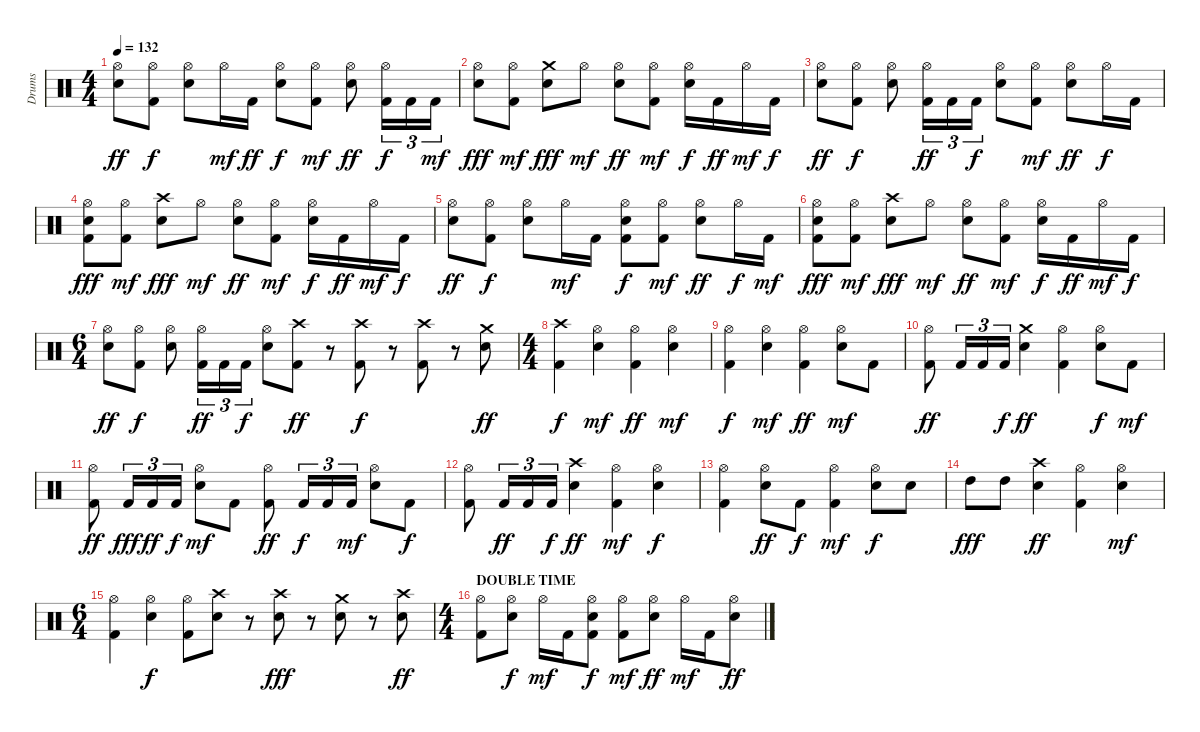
\track ("Drums" "Drums") {instrument percussion}
\staff {score}
\articulation defaults
\ts (4 4)
\tempo 132
\clef neutral
\ks c
("Hi-Hat (open)" "Electric Snare (hit)").8{dy ff} ("Hi-Hat (open)" "Kick (hit) 2").8{dy f} ("Hi-Hat (open)" "Electric Snare (hit)").8 "Hi-Hat (open)".16{dy mf} "Kick (hit) 2".16{dy ff} ("Hi-Hat (open)" "Electric Snare (hit)").8{dy f} ("Hi-Hat (open)" "Kick (hit) 2").8{dy mf} ("Hi-Hat (open)" "Electric Snare (hit)").8{dy ff} ("Hi-Hat (open)" "Kick (hit) 2").16{tu (3 2) dy f} "Kick (hit) 2".16{tu (3 2)} "Kick (hit) 2".16{tu (3 2) dy mf} |
("Hi-Hat (open)" "Electric Snare (hit)").8{dy fff} ("Hi-Hat (open)" "Kick (hit) 2").8{dy mf} ("Crash medium (hit)" "Electric Snare (hit)").8{dy fff} "Hi-Hat (open)".8{dy mf} ("Hi-Hat (open)" "Electric Snare (hit)").8{dy ff} ("Hi-Hat (open)" "Kick (hit) 2").8{dy mf} ("Hi-Hat (open)" "Electric Snare (hit)").16{dy f} "Kick (hit) 2".16{dy ff} "Hi-Hat (open)".16{dy mf} "Kick (hit) 2".16{dy f} |
("Hi-Hat (open)" "Electric Snare (hit)").8{dy ff} ("Hi-Hat (open)" "Kick (hit) 2").8{dy f} ("Hi-Hat (open)" "Electric Snare (hit)").8 ("Hi-Hat (open)" "Kick (hit) 2").16{tu (3 2) dy ff} "Kick (hit) 2".16{tu (3 2)} "Kick (hit) 2".16{tu (3 2) dy f} ("Hi-Hat (open)" "Electric Snare (hit)").8 ("Hi-Hat (open)" "Kick (hit) 2").8{dy mf} ("Hi-Hat (open)" "Electric Snare (hit)").8{dy ff} "Hi-Hat (open)".16{dy f} "Kick (hit) 2".16 |
("Hi-Hat (open)" "Electric Snare (hit)" "Kick (hit) 2").8{dy fff} ("Hi-Hat (open)" "Kick (hit) 2").8{dy mf} ("Crash high (hit)" "Electric Snare (hit)").8{dy fff} "Hi-Hat (open)".8{dy mf} ("Hi-Hat (open)" "Electric Snare (hit)").8{dy ff} ("Hi-Hat (open)" "Kick (hit) 2").8{dy mf} ("Hi-Hat (open)" "Electric Snare (hit)").16{dy f} "Kick (hit) 2".16{dy ff} "Hi-Hat (open)".16{dy mf} "Kick (hit) 2".16{dy f} |
("Hi-Hat (open)" "Electric Snare (hit)").8{dy ff} ("Hi-Hat (open)" "Kick (hit) 2").8{dy f} ("Hi-Hat (open)" "Electric Snare (hit)").8 "Hi-Hat (open)".16{dy mf} "Kick (hit) 2".16 ("Hi-Hat (open)" "Electric Snare (hit)" "Kick (hit) 2").8{dy f} ("Hi-Hat (open)" "Kick (hit) 2").8{dy mf} ("Hi-Hat (open)" "Electric Snare (hit)").8{dy ff} "Hi-Hat (open)".16{dy f} "Kick (hit) 2".16{dy mf} |
("Hi-Hat (open)" "Electric Snare (hit)" "Kick (hit) 2").8{dy fff} ("Hi-Hat (open)" "Kick (hit) 2").8{dy mf} ("Crash high (hit)" "Electric Snare (hit)").8{dy fff} "Hi-Hat (open)".8{dy mf} ("Hi-Hat (open)" "Electric Snare (hit)").8{dy ff} ("Hi-Hat (open)" "Kick (hit) 2").8{dy mf} ("Hi-Hat (open)" "Electric Snare (hit)").16{dy f} "Kick (hit) 2".16{dy ff} "Hi-Hat (open)".16{dy mf} "Kick (hit) 2".16{dy f} |
\ts (6 4)
("Hi-Hat (open)" "Electric Snare (hit)").8{dy ff} ("Hi-Hat (open)" "Kick (hit) 2").8{dy f} ("Hi-Hat (open)" "Electric Snare (hit)").8 ("Hi-Hat (open)" "Kick (hit) 2").16{tu (3 2) dy ff} "Kick (hit) 2".16{tu (3 2)} "Kick (hit) 2".16{tu (3 2) dy f} ("Hi-Hat (open)" "Electric Snare (hit)").8 ("Crash high (hit)" "Kick (hit) 2").8{dy ff} r.8{volume 0} ("Crash high (hit)" "Kick (hit) 2").8{dy f volume 14} r.8{volume 0} ("Crash high (hit)" "Kick (hit) 2").8{volume 14} r.8{volume 0} ("Crash medium (hit)" "Electric Snare (hit)").8{dy ff volume 14} |
\ts (4 4)
("Crash high (hit)" "Kick (hit) 2").4{dy f} ("Hi-Hat (open)" "Electric Snare (hit)").4{dy mf} ("Hi-Hat (open)" "Kick (hit) 2").4{dy ff} ("Hi-Hat (open)" "Electric Snare (hit)").4{dy mf} |
("Hi-Hat (open)" "Kick (hit) 2").4{dy f} ("Hi-Hat (open)" "Electric Snare (hit)").4{dy mf} ("Hi-Hat (open)" "Kick (hit) 2").4{dy ff} ("Hi-Hat (open)" "Electric Snare (hit)").8{dy mf} "Kick (hit) 2".8 |
("Hi-Hat (open)" "Kick (hit) 2").8{dy ff} "Kick (hit) 2".16{tu (3 2)} "Kick (hit) 2".16{tu (3 2)} "Kick (hit) 2".16{tu (3 2) dy f} ("Crash medium (hit)" "Electric Snare (hit)").4{dy ff} ("Hi-Hat (open)" "Kick (hit) 2").4 ("Hi-Hat (open)" "Electric Snare (hit)").8{dy f} "Kick (hit) 2".8{dy mf} |
("Hi-Hat (open)" "Kick (hit) 2").8{dy ff} "Kick (hit) 2".16{tu (3 2) dy fff} "Kick (hit) 2".16{tu (3 2) dy ff} "Kick (hit) 2".16{tu (3 2) dy f} ("Hi-Hat (open)" "Electric Snare (hit)").8{dy mf} "Kick (hit) 2".8 ("Hi-Hat (open)" "Kick (hit) 2").8{dy ff} "Kick (hit) 2".16{tu (3 2) dy f} "Kick (hit) 2".16{tu (3 2)} "Kick (hit) 2".16{tu (3 2) dy mf} ("Hi-Hat (open)" "Electric Snare (hit)").8 "Kick (hit) 2".8{dy f} |
("Hi-Hat (open)" "Kick (hit) 2").8 "Kick (hit) 2".16{tu (3 2) dy ff} "Kick (hit) 2".16{tu (3 2)} "Kick (hit) 2".16{tu (3 2) dy f} ("Crash high (hit)" "Electric Snare (hit)").4{dy ff} ("Hi-Hat (open)" "Kick (hit) 2").4{dy mf} ("Hi-Hat (open)" "Electric Snare (hit)").4{dy f} |
("Hi-Hat (open)" "Kick (hit) 2").4 ("Hi-Hat (open)" "Electric Snare (hit)").8{dy ff} "Kick (hit) 2".8{dy f} ("Hi-Hat (open)" "Kick (hit) 2").4{dy mf} ("Hi-Hat (open)" "Electric Snare (hit)").8{dy f} "Electric Snare (hit)".8 |
"High Tom (hit)".8{dy fff} "High Tom (hit)".8 ("Crash high (hit)" "Electric Snare (hit)").4{dy ff} ("Hi-Hat (open)" "Kick (hit) 2").4 ("Hi-Hat (open)" "Electric Snare (hit)").4{dy mf} |
\ts (6 4)
("Hi-Hat (open)" "Kick (hit) 2").4 ("Hi-Hat (open)" "Electric Snare (hit)").4{dy f} ("Hi-Hat (open)" "Kick (hit) 2").8 ("Crash high (hit)" "Electric Snare (hit)").8 r.8 ("Crash high (hit)" "Electric Snare (hit)").8{dy fff} r.8 ("Crash medium (hit)" "Electric Snare (hit)").8 r.8 ("Crash high (hit)" "Electric Snare (hit)").8{dy ff} |
\ts (4 4)
\section ("" "DOUBLE TIME")
("Hi-Hat (open)" "Kick (hit) 2").8 ("Hi-Hat (open)" "Electric Snare (hit)").8{dy f} "Hi-Hat (open)".16{dy mf} "Kick (hit) 2".16 ("Hi-Hat (open)" "Electric Snare (hit)" "Kick (hit) 2").8{dy f} ("Hi-Hat (open)" "Kick (hit) 2").8{dy mf} ("Hi-Hat (open)" "Electric Snare (hit)").8{dy ff} "Hi-Hat (open)".16{dy mf} "Kick (hit) 2".16 ("Hi-Hat (open)" "Electric Snare (hit)").8{dy ff}
